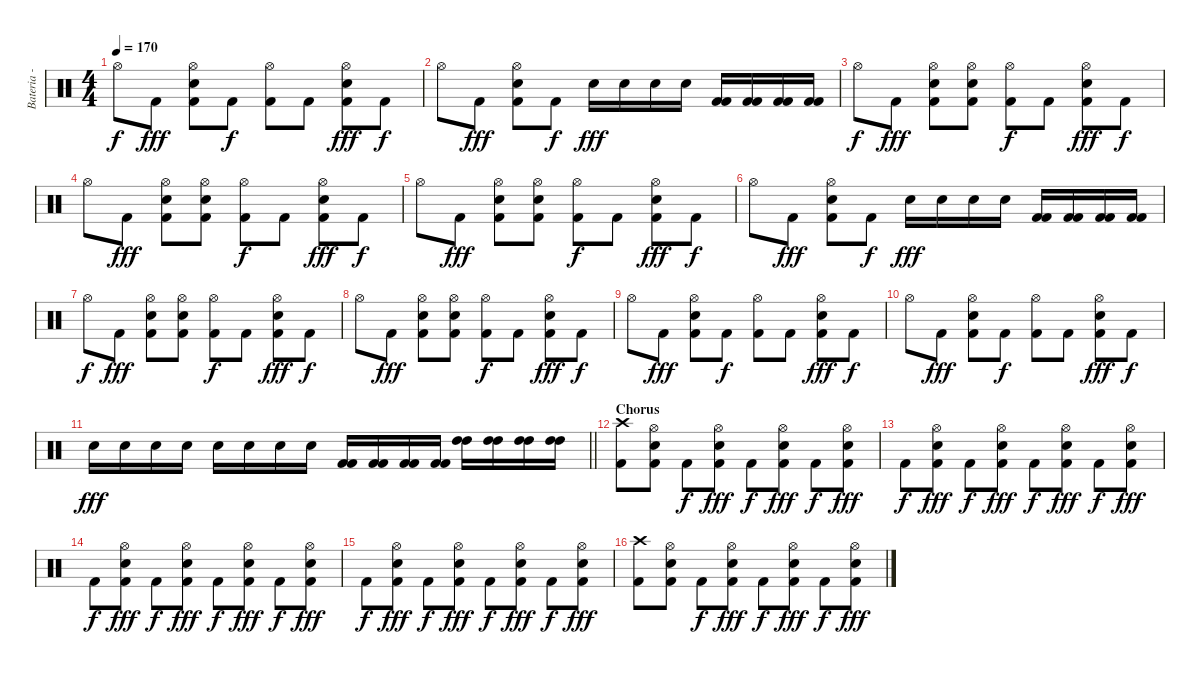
\track ("Bateria - Larzon" "Bateria - ") {instrument percussion}
\staff {score}
\articulation defaults
\ts (4 4)
\tempo 170
\clef neutral
\ks c "Hi-Hat (open)".8{dy f} "Kick (hit) 2".8{dy fff}
("Kick (hit) 2" "Hi-Hat (open)" "Snare (hit) 2").8 "Kick (hit) 2".8{dy f} ("Kick (hit) 2" "Hi-Hat (open)").8 "Kick (hit) 2".8 ("Kick (hit) 2" "Hi-Hat (open)" "Snare (hit) 2").8{dy fff} "Kick (hit) 2".8{dy f} |
"Hi-Hat (open)".8 "Kick (hit) 2".8{dy fff} ("Kick (hit) 2" "Hi-Hat (open)" "Snare (hit) 2").8 "Kick (hit) 2".8{dy f} "Snare (hit) 2".16{dy fff} "Snare (hit) 2".16 "Snare (hit) 2".16 "Snare (hit) 2".16 ("Kick (hit) 2" "Kick (hit) 2").16 ("Kick (hit) 2" "Kick (hit) 2").16 ("Kick (hit) 2" "Kick (hit) 2").16 ("Kick (hit) 2" "Kick (hit) 2").16 |
"Hi-Hat (open)".8{dy f} "Kick (hit) 2".8{dy fff} ("Kick (hit) 2" "Hi-Hat (open)" "Snare (hit) 2").8 ("Kick (hit) 2" "Hi-Hat (open)" "Snare (hit) 2").8 ("Kick (hit) 2" "Hi-Hat (open)").8{dy f} "Kick (hit) 2".8 ("Kick (hit) 2" "Hi-Hat (open)" "Snare (hit) 2").8{dy fff} "Kick (hit) 2".8{dy f} |
"Hi-Hat (open)".8 "Kick (hit) 2".8{dy fff} ("Kick (hit) 2" "Hi-Hat (open)" "Snare (hit) 2").8 ("Kick (hit) 2" "Hi-Hat (open)" "Snare (hit) 2").8 ("Kick (hit) 2" "Hi-Hat (open)").8{dy f} "Kick (hit) 2".8 ("Kick (hit) 2" "Hi-Hat (open)" "Snare (hit) 2").8{dy fff} "Kick (hit) 2".8{dy f} |
"Hi-Hat (open)".8 "Kick (hit) 2".8{dy fff} ("Kick (hit) 2" "Hi-Hat (open)" "Snare (hit) 2").8 ("Kick (hit) 2" "Hi-Hat (open)" "Snare (hit) 2").8 ("Kick (hit) 2" "Hi-Hat (open)").8{dy f} "Kick (hit) 2".8 ("Kick (hit) 2" "Hi-Hat (open)" "Snare (hit) 2").8{dy fff} "Kick (hit) 2".8{dy f} |
"Hi-Hat (open)".8 "Kick (hit) 2".8{dy fff} ("Kick (hit) 2" "Hi-Hat (open)" "Snare (hit) 2").8 "Kick (hit) 2".8{dy f} "Snare (hit) 2".16{dy fff} "Snare (hit) 2".16 "Snare (hit) 2".16 "Snare (hit) 2".16 ("Kick (hit) 2" "Kick (hit) 2").16 ("Kick (hit) 2" "Kick (hit) 2").16 ("Kick (hit) 2" "Kick (hit) 2").16 ("Kick (hit) 2" "Kick (hit) 2").16 |
"Hi-Hat (open)".8{dy f} "Kick (hit) 2".8{dy fff} ("Kick (hit) 2" "Hi-Hat (open)" "Snare (hit) 2").8 ("Kick (hit) 2" "Hi-Hat (open)" "Snare (hit) 2").8 ("Kick (hit) 2" "Hi-Hat (open)").8{dy f} "Kick (hit) 2".8 ("Kick (hit) 2" "Hi-Hat (open)" "Snare (hit) 2").8{dy fff} "Kick (hit) 2".8{dy f} |
"Hi-Hat (open)".8 "Kick (hit) 2".8{dy fff} ("Kick (hit) 2" "Hi-Hat (open)" "Snare (hit) 2").8 ("Kick (hit) 2" "Hi-Hat (open)" "Snare (hit) 2").8 ("Kick (hit) 2" "Hi-Hat (open)").8{dy f} "Kick (hit) 2".8 ("Kick (hit) 2" "Hi-Hat (open)" "Snare (hit) 2").8{dy fff} "Kick (hit) 2".8{dy f} |
"Hi-Hat (open)".8 "Kick (hit) 2".8{dy fff} ("Kick (hit) 2" "Hi-Hat (open)" "Snare (hit) 2").8 "Kick (hit) 2".8{dy f} ("Kick (hit) 2" "Hi-Hat (open)").8 "Kick (hit) 2".8 ("Kick (hit) 2" "Hi-Hat (open)" "Snare (hit) 2").8{dy fff} "Kick (hit) 2".8{dy f} |
"Hi-Hat (open)".8 "Kick (hit) 2".8{dy fff} ("Kick (hit) 2" "Hi-Hat (open)" "Snare (hit) 2").8 "Kick (hit) 2".8{dy f} ("Kick (hit) 2" "Hi-Hat (open)").8 "Kick (hit) 2".8 ("Kick (hit) 2" "Hi-Hat (open)" "Snare (hit) 2").8{dy fff} "Kick (hit) 2".8{dy f} |
\barLineRight lightlight "Snare (hit) 2".16{dy fff} "Snare (hit) 2".16 "Snare (hit) 2".16 "Snare (hit) 2".16 "Snare (hit) 2".16 "Snare (hit) 2".16 "Snare (hit) 2".16 "Snare (hit) 2".16
("Kick (hit) 2" "Kick (hit) 2").16 ("Kick (hit) 2" "Kick (hit) 2").16 ("Kick (hit) 2" "Kick (hit) 2").16 ("Kick (hit) 2" "Kick (hit) 2").16 ("High Tom (hit)" "High Tom (hit)").16 ("High Tom (hit)" "High Tom (hit)").16 ("High Tom (hit)" "High Tom (hit)").16 ("High Tom (hit)" "High Tom (hit)").16 |
\section ("" "Chorus")
("Crash high (hit)" "Kick (hit) 2").8 ("Kick (hit) 2" "Hi-Hat (open)" "Snare (hit) 2").8 "Kick (hit) 2".8{dy f} ("Kick (hit) 2" "Hi-Hat (open)" "Snare (hit) 2").8{dy fff} "Kick (hit) 2".8{dy f} ("Kick (hit) 2" "Hi-Hat (open)" "Snare (hit) 2").8{dy fff} "Kick (hit) 2".8{dy f} ("Kick (hit) 2" "Hi-Hat (open)" "Snare (hit) 2").8{dy fff} |
"Kick (hit) 2".8{dy f} ("Kick (hit) 2" "Hi-Hat (open)" "Snare (hit) 2").8{dy fff} "Kick (hit) 2".8{dy f} ("Kick (hit) 2" "Hi-Hat (open)" "Snare (hit) 2").8{dy fff} "Kick (hit) 2".8{dy f} ("Kick (hit) 2" "Hi-Hat (open)" "Snare (hit) 2").8{dy fff} "Kick (hit) 2".8{dy f} ("Kick (hit) 2" "Hi-Hat (open)" "Snare (hit) 2").8{dy fff} |
"Kick (hit) 2".8{dy f} ("Kick (hit) 2" "Hi-Hat (open)" "Snare (hit) 2").8{dy fff} "Kick (hit) 2".8{dy f} ("Kick (hit) 2" "Hi-Hat (open)" "Snare (hit) 2").8{dy fff} "Kick (hit) 2".8{dy f} ("Kick (hit) 2" "Hi-Hat (open)" "Snare (hit) 2").8{dy fff} "Kick (hit) 2".8{dy f} ("Kick (hit) 2" "Hi-Hat (open)" "Snare (hit) 2").8{dy fff} |
"Kick (hit) 2".8{dy f} ("Kick (hit) 2" "Hi-Hat (open)" "Snare (hit) 2").8{dy fff} "Kick (hit) 2".8{dy f} ("Kick (hit) 2" "Hi-Hat (open)" "Snare (hit) 2").8{dy fff} "Kick (hit) 2".8{dy f} ("Kick (hit) 2" "Hi-Hat (open)" "Snare (hit) 2").8{dy fff} "Kick (hit) 2".8{dy f} ("Kick (hit) 2" "Hi-Hat (open)" "Snare (hit) 2").8{dy fff} |
("Crash high (hit)" "Kick (hit) 2").8 ("Kick (hit) 2" "Hi-Hat (open)" "Snare (hit) 2").8 "Kick (hit) 2".8{dy f} ("Kick (hit) 2" "Hi-Hat (open)" "Snare (hit) 2").8{dy fff} "Kick (hit) 2".8{dy f} ("Kick (hit) 2" "Hi-Hat (open)" "Snare (hit) 2").8{dy fff} "Kick (hit) 2".8{dy f} ("Kick (hit) 2" "Hi-Hat (open)" "Snare (hit) 2").8{dy fff}
